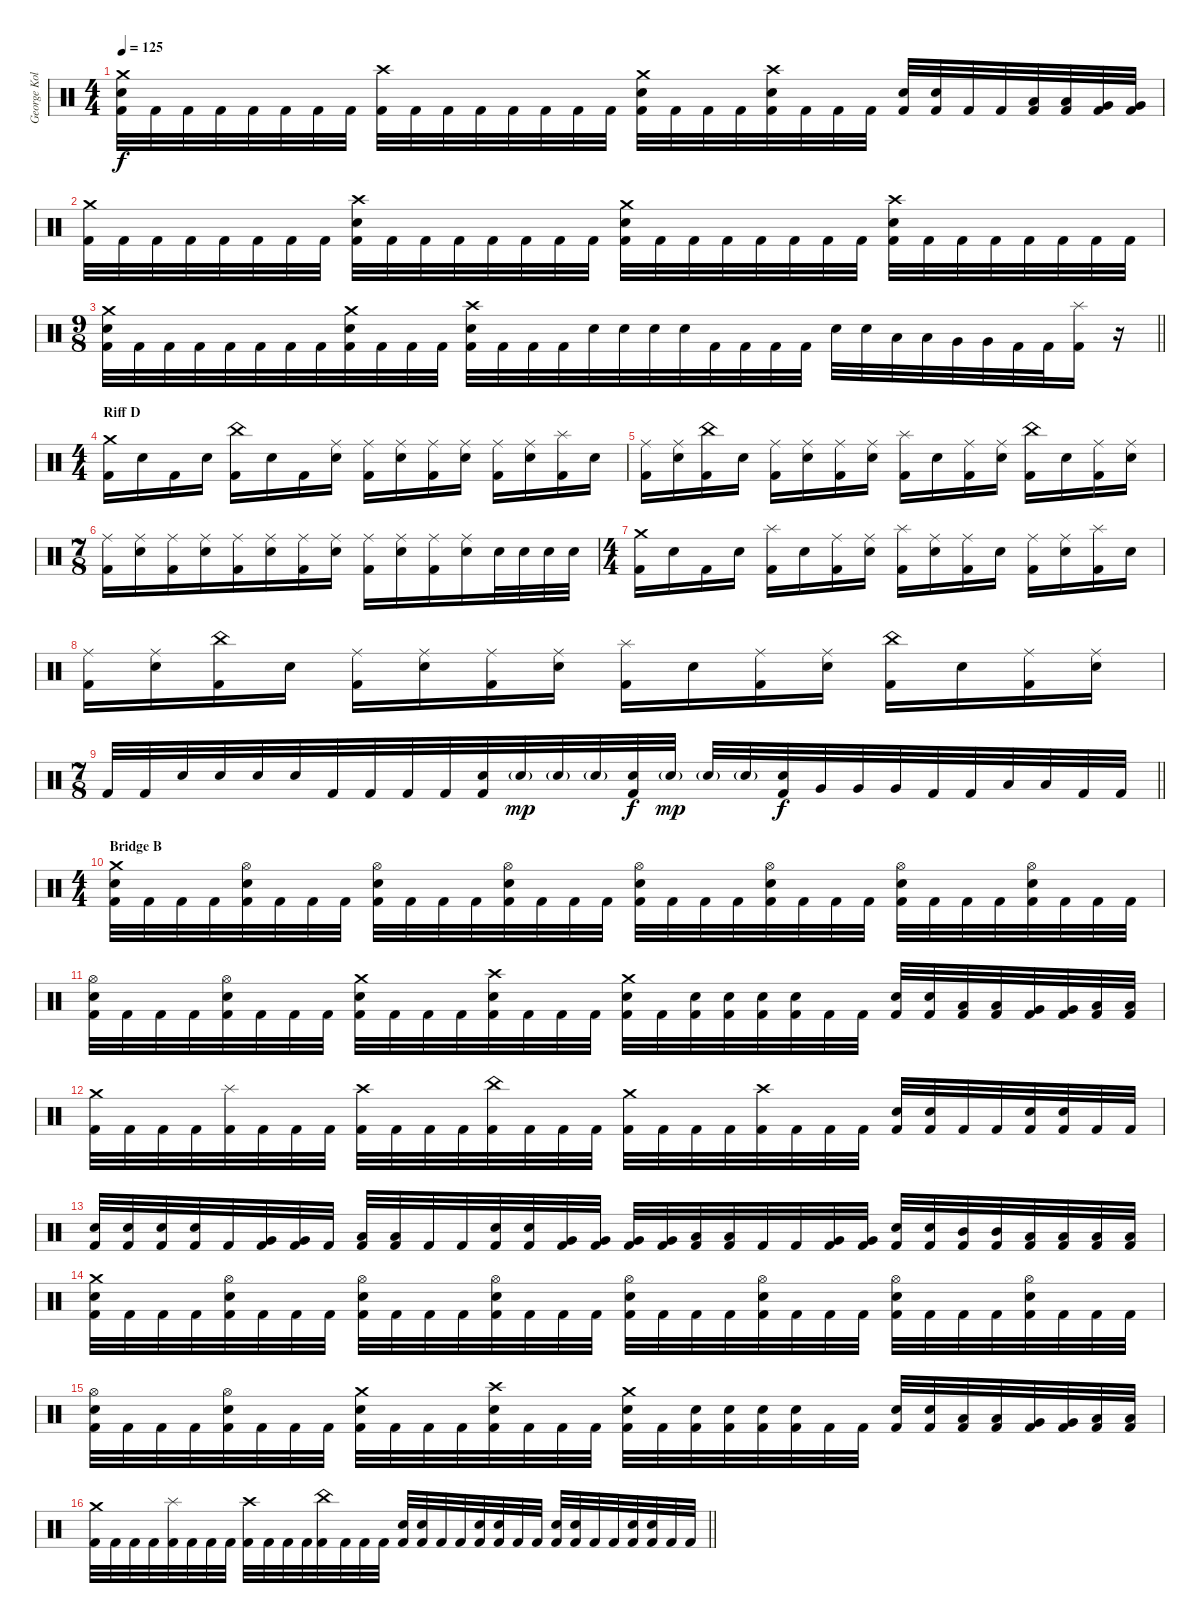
\track ("George Kollias" "George Kol") {instrument percussion}
\staff {score}
\articulation defaults
\ts (4 4)
\tempo 125
\clef neutral
\ks c
("Crash medium (hit)" "Electric Snare (hit)" "Kick (hit) 2").32{dy f} "Kick (hit) 2".32 "Kick (hit) 2".32 "Kick (hit) 2".32 "Kick (hit) 2".32 "Kick (hit) 2".32 "Kick (hit) 2".32 "Kick (hit) 2".32 ("Crash high (hit)" "Kick (hit) 2").32 "Kick (hit) 2".32 "Kick (hit) 2".32 "Kick (hit) 2".32 "Kick (hit) 2".32 "Kick (hit) 2".32 "Kick (hit) 2".32 "Kick (hit) 2".32 ("Crash medium (hit)" "Electric Snare (hit)" "Kick (hit) 2").32 "Kick (hit) 2".32 "Kick (hit) 2".32 "Kick (hit) 2".32 ("Crash high (hit)" "Electric Snare (hit)" "Kick (hit) 2").32 "Kick (hit) 2".32 "Kick (hit) 2".32 "Kick (hit) 2".32 ("Electric Snare (hit)" "Kick (hit) 2").32 ("Electric Snare (hit)" "Kick (hit) 2").32 "Kick (hit) 2".32 "Kick (hit) 2".32 ("Low Tom (hit)" "Kick (hit) 2").32 ("Low Tom (hit)" "Kick (hit) 2").32 ("Very Low Tom (hit)" "Kick (hit) 2").32 ("Very Low Tom (hit)" "Kick (hit) 2").32 |
("Crash medium (hit)" "Kick (hit) 2").32 "Kick (hit) 2".32 "Kick (hit) 2".32 "Kick (hit) 2".32 "Kick (hit) 2".32 "Kick (hit) 2".32 "Kick (hit) 2".32 "Kick (hit) 2".32 ("Crash high (hit)" "Electric Snare (hit)" "Kick (hit) 2").32 "Kick (hit) 2".32 "Kick (hit) 2".32 "Kick (hit) 2".32 "Kick (hit) 2".32 "Kick (hit) 2".32 "Kick (hit) 2".32 "Kick (hit) 2".32 ("Crash medium (hit)" "Electric Snare (hit)" "Kick (hit) 2").32 "Kick (hit) 2".32 "Kick (hit) 2".32 "Kick (hit) 2".32 "Kick (hit) 2".32 "Kick (hit) 2".32 "Kick (hit) 2".32 "Kick (hit) 2".32 ("Crash high (hit)" "Electric Snare (hit)" "Kick (hit) 2").32 "Kick (hit) 2".32 "Kick (hit) 2".32 "Kick (hit) 2".32 "Kick (hit) 2".32 "Kick (hit) 2".32 "Kick (hit) 2".32 "Kick (hit) 2".32 |
\ts (9 8)
\barLineRight lightlight
("Crash medium (hit)" "Electric Snare (hit)" "Kick (hit) 2").32 "Kick (hit) 2".32 "Kick (hit) 2".32 "Kick (hit) 2".32 "Kick (hit) 2".32 "Kick (hit) 2".32 "Kick (hit) 2".32 "Kick (hit) 2".32 ("Crash medium (hit)" "Electric Snare (hit)" "Kick (hit) 2").32 "Kick (hit) 2".32 "Kick (hit) 2".32 "Kick (hit) 2".32 ("Crash high (hit)" "Electric Snare (hit)" "Kick (hit) 2").32 "Kick (hit) 2".32 "Kick (hit) 2".32 "Kick (hit) 2".32 "Electric Snare (hit)".32 "Electric Snare (hit)".32 "Electric Snare (hit)".32 "Electric Snare (hit)".32 "Kick (hit) 2".32 "Kick (hit) 2".32 "Kick (hit) 2".32 "Kick (hit) 2".32 "Electric Snare (hit)".32 "Electric Snare (hit)".32 "Low Tom (hit)".32 "Low Tom (hit)".32 "Very Low Tom (hit)".32 "Very Low Tom (hit)".32 "Kick (hit) 2".32 "Kick (hit) 2".32 ("Splash (hit)" "Kick (hit) 2").16 r.16 |
\ts (4 4)
\section ("" "Riff D")
("Crash medium (hit)" "Kick (hit) 2").16 "Electric Snare (hit)".16 "Kick (hit) 2".16 "Electric Snare (hit)".16 ("China (hit)" "Kick (hit) 2").16 "Electric Snare (hit)".16 "Kick (hit) 2".16 ("Ride (middle)" "Electric Snare (hit)").16 ("Ride (middle)" "Kick (hit) 2").16 ("Ride (middle)" "Electric Snare (hit)").16 ("Ride (middle)" "Kick (hit) 2").16 ("Ride (middle)" "Electric Snare (hit)").16 ("Ride (middle)" "Kick (hit) 2").16 ("Ride (middle)" "Electric Snare (hit)").16 ("Splash (hit)" "Kick (hit) 2").16 "Electric Snare (hit)".16 |
("Ride (middle)" "Kick (hit) 2").16 ("Ride (middle)" "Electric Snare (hit)").16 ("China (hit)" "Kick (hit) 2").16 "Electric Snare (hit)".16 ("Ride (middle)" "Kick (hit) 2").16 ("Ride (middle)" "Electric Snare (hit)").16 ("Ride (middle)" "Kick (hit) 2").16 ("Ride (middle)" "Electric Snare (hit)").16 ("Splash (hit)" "Kick (hit) 2").16 "Electric Snare (hit)".16 ("Ride (middle)" "Kick (hit) 2").16 ("Ride (middle)" "Electric Snare (hit)").16 ("China (hit)" "Kick (hit) 2").16 "Electric Snare (hit)".16 ("Ride (middle)" "Kick (hit) 2").16 ("Ride (middle)" "Electric Snare (hit)").16 |
\ts (7 8)
("Ride (middle)" "Kick (hit) 2").16 ("Ride (middle)" "Electric Snare (hit)").16 ("Ride (middle)" "Kick (hit) 2").16 ("Ride (middle)" "Electric Snare (hit)").16 ("Ride (middle)" "Kick (hit) 2").16 ("Ride (middle)" "Electric Snare (hit)").16 ("Ride (middle)" "Kick (hit) 2").16 ("Ride (middle)" "Electric Snare (hit)").16 ("Ride (middle)" "Kick (hit) 2").16 ("Ride (middle)" "Electric Snare (hit)").16 ("Ride (middle)" "Kick (hit) 2").16 ("Ride (middle)" "Electric Snare (hit)").16 "Electric Snare (hit)".32 "Electric Snare (hit)".32 "Electric Snare (hit)".32 "Electric Snare (hit)".32 |
\ts (4 4)
("Crash medium (hit)" "Kick (hit) 2").16 "Electric Snare (hit)".16 "Kick (hit) 2".16 "Electric Snare (hit)".16 ("Splash (hit)" "Kick (hit) 2").16 "Electric Snare (hit)".16 ("Ride (middle)" "Kick (hit) 2").16 ("Ride (middle)" "Electric Snare (hit)").16 ("Splash (hit)" "Kick (hit) 2").16 ("Ride (middle)" "Electric Snare (hit)").16 ("Ride (middle)" "Kick (hit) 2").16 "Electric Snare (hit)".16 ("Ride (middle)" "Kick (hit) 2").16 ("Ride (middle)" "Electric Snare (hit)").16 ("Splash (hit)" "Kick (hit) 2").16 "Electric Snare (hit)".16 |
("Ride (middle)" "Kick (hit) 2").16 ("Ride (middle)" "Electric Snare (hit)").16 ("China (hit)" "Kick (hit) 2").16 "Electric Snare (hit)".16 ("Ride (middle)" "Kick (hit) 2").16 ("Ride (middle)" "Electric Snare (hit)").16 ("Ride (middle)" "Kick (hit) 2").16 ("Ride (middle)" "Electric Snare (hit)").16 ("Splash (hit)" "Kick (hit) 2").16 "Electric Snare (hit)".16 ("Ride (middle)" "Kick (hit) 2").16 ("Ride (middle)" "Electric Snare (hit)").16 ("China (hit)" "Kick (hit) 2").16 "Electric Snare (hit)".16 ("Ride (middle)" "Kick (hit) 2").16 ("Ride (middle)" "Electric Snare (hit)").16 |
\ts (7 8)
\barLineRight lightlight "Kick (hit) 2".32 "Kick (hit) 2".32 "Electric Snare (hit)".32 "Electric Snare (hit)".32 "Electric Snare (hit)".32 "Electric Snare (hit)".32 "Kick (hit) 2".32 "Kick (hit) 2".32 "Kick (hit) 2".32 "Kick (hit) 2".32
("Electric Snare (hit)" "Kick (hit) 2").32 "Electric Snare (hit)"{g}.32{dy mp} "Electric Snare (hit)"{g}.32 "Electric Snare (hit)"{g}.32 ("Electric Snare (hit)" "Kick (hit) 2").32{dy f} "Electric Snare (hit)"{g}.32{dy mp} "Electric Snare (hit)"{g}.32 "Electric Snare (hit)"{g}.32 ("Electric Snare (hit)" "Kick (hit) 2").32{dy f} "Very Low Tom (hit)".32 "Very Low Tom (hit)".32 "Very Low Tom (hit)".32 "Kick (hit) 2".32 "Kick (hit) 2".32 "Low Floor Tom (hit)".32 "Low Floor Tom (hit)".32 "Kick (hit) 2".32 "Kick (hit) 2".32 |
\ts (4 4)
\section ("" "Bridge B")
("Crash medium (hit)" "Electric Snare (hit)" "Kick (hit) 2").32 "Kick (hit) 2".32 "Kick (hit) 2".32 "Kick (hit) 2".32 ("Hi-Hat (open)" "Electric Snare (hit)" "Kick (hit) 2").32 "Kick (hit) 2".32 "Kick (hit) 2".32 "Kick (hit) 2".32 ("Hi-Hat (open)" "Electric Snare (hit)" "Kick (hit) 2").32 "Kick (hit) 2".32 "Kick (hit) 2".32 "Kick (hit) 2".32 ("Hi-Hat (open)" "Electric Snare (hit)" "Kick (hit) 2").32 "Kick (hit) 2".32 "Kick (hit) 2".32 "Kick (hit) 2".32 ("Hi-Hat (open)" "Electric Snare (hit)" "Kick (hit) 2").32 "Kick (hit) 2".32 "Kick (hit) 2".32 "Kick (hit) 2".32 ("Hi-Hat (open)" "Electric Snare (hit)" "Kick (hit) 2").32 "Kick (hit) 2".32 "Kick (hit) 2".32 "Kick (hit) 2".32 ("Hi-Hat (open)" "Electric Snare (hit)" "Kick (hit) 2").32 "Kick (hit) 2".32 "Kick (hit) 2".32 "Kick (hit) 2".32 ("Hi-Hat (open)" "Electric Snare (hit)" "Kick (hit) 2").32 "Kick (hit) 2".32 "Kick (hit) 2".32 "Kick (hit) 2".32 |
("Hi-Hat (open)" "Electric Snare (hit)" "Kick (hit) 2").32 "Kick (hit) 2".32 "Kick (hit) 2".32 "Kick (hit) 2".32 ("Hi-Hat (open)" "Electric Snare (hit)" "Kick (hit) 2").32 "Kick (hit) 2".32 "Kick (hit) 2".32 "Kick (hit) 2".32 ("Crash medium (hit)" "Electric Snare (hit)" "Kick (hit) 2").32 "Kick (hit) 2".32 "Kick (hit) 2".32 "Kick (hit) 2".32 ("Crash high (hit)" "Electric Snare (hit)" "Kick (hit) 2").32 "Kick (hit) 2".32 "Kick (hit) 2".32 "Kick (hit) 2".32 ("Crash medium (hit)" "Electric Snare (hit)" "Kick (hit) 2").32 "Kick (hit) 2".32 ("Electric Snare (hit)" "Kick (hit) 2").32 ("Electric Snare (hit)" "Kick (hit) 2").32 ("Electric Snare (hit)" "Kick (hit) 2").32 ("Electric Snare (hit)" "Kick (hit) 2").32 "Kick (hit) 2".32 "Kick (hit) 2".32 ("Electric Snare (hit)" "Kick (hit) 2").32 ("Electric Snare (hit)" "Kick (hit) 2").32 ("Low Tom (hit)" "Kick (hit) 2").32 ("Low Tom (hit)" "Kick (hit) 2").32 ("Very Low Tom (hit)" "Kick (hit) 2").32 ("Very Low Tom (hit)" "Kick (hit) 2").32 ("Low Floor Tom (hit)" "Kick (hit) 2").32 ("Low Floor Tom (hit)" "Kick (hit) 2").32 |
("Crash medium (hit)" "Kick (hit) 2").32 "Kick (hit) 2".32 "Kick (hit) 2".32 "Kick (hit) 2".32 ("Splash (hit)" "Kick (hit) 2").32 "Kick (hit) 2".32 "Kick (hit) 2".32 "Kick (hit) 2".32 ("Crash high (hit)" "Kick (hit) 2").32 "Kick (hit) 2".32 "Kick (hit) 2".32 "Kick (hit) 2".32 ("China (hit)" "Kick (hit) 2").32 "Kick (hit) 2".32 "Kick (hit) 2".32 "Kick (hit) 2".32 ("Crash medium (hit)" "Kick (hit) 2").32 "Kick (hit) 2".32 "Kick (hit) 2".32 "Kick (hit) 2".32 ("Crash high (hit)" "Kick (hit) 2").32 "Kick (hit) 2".32 "Kick (hit) 2".32 "Kick (hit) 2".32 ("Electric Snare (hit)" "Kick (hit) 2").32 ("Electric Snare (hit)" "Kick (hit) 2").32 "Kick (hit) 2".32 "Kick (hit) 2".32 ("Electric Snare (hit)" "Kick (hit) 2").32 ("Electric Snare (hit)" "Kick (hit) 2").32 "Kick (hit) 2".32 "Kick (hit) 2".32 |
("Electric Snare (hit)" "Kick (hit) 2").32 ("Electric Snare (hit)" "Kick (hit) 2").32 ("Electric Snare (hit)" "Kick (hit) 2").32 ("Electric Snare (hit)" "Kick (hit) 2").32 "Kick (hit) 2".32 ("Very Low Tom (hit)" "Kick (hit) 2").32 ("Very Low Tom (hit)" "Kick (hit) 2").32 "Kick (hit) 2".32 ("Low Floor Tom (hit)" "Kick (hit) 2").32 ("Low Floor Tom (hit)" "Kick (hit) 2").32 "Kick (hit) 2".32 "Kick (hit) 2".32 ("Electric Snare (hit)" "Kick (hit) 2").32 ("Electric Snare (hit)" "Kick (hit) 2").32 ("Very Low Tom (hit)" "Kick (hit) 2").32 ("Very Low Tom (hit)" "Kick (hit) 2").32 ("Very Low Tom (hit)" "Kick (hit) 2").32 ("Very Low Tom (hit)" "Kick (hit) 2").32 ("Low Floor Tom (hit)" "Kick (hit) 2").32 ("Low Floor Tom (hit)" "Kick (hit) 2").32 "Kick (hit) 2".32 "Kick (hit) 2".32 ("Very Low Tom (hit)" "Kick (hit) 2").32 ("Very Low Tom (hit)" "Kick (hit) 2").32 ("Electric Snare (hit)" "Kick (hit) 2").32 ("Electric Snare (hit)" "Kick (hit) 2").32 ("Mid Tom (hit)" "Kick (hit) 2").32 ("Mid Tom (hit)" "Kick (hit) 2").32 ("Low Tom (hit)" "Kick (hit) 2").32 ("Low Tom (hit)" "Kick (hit) 2").32 ("Low Tom (hit)" "Kick (hit) 2").32 ("Low Tom (hit)" "Kick (hit) 2").32 |
("Crash medium (hit)" "Electric Snare (hit)" "Kick (hit) 2").32 "Kick (hit) 2".32 "Kick (hit) 2".32 "Kick (hit) 2".32 ("Hi-Hat (open)" "Electric Snare (hit)" "Kick (hit) 2").32 "Kick (hit) 2".32 "Kick (hit) 2".32 "Kick (hit) 2".32 ("Hi-Hat (open)" "Electric Snare (hit)" "Kick (hit) 2").32 "Kick (hit) 2".32 "Kick (hit) 2".32 "Kick (hit) 2".32 ("Hi-Hat (open)" "Electric Snare (hit)" "Kick (hit) 2").32 "Kick (hit) 2".32 "Kick (hit) 2".32 "Kick (hit) 2".32 ("Hi-Hat (open)" "Electric Snare (hit)" "Kick (hit) 2").32 "Kick (hit) 2".32 "Kick (hit) 2".32 "Kick (hit) 2".32 ("Hi-Hat (open)" "Electric Snare (hit)" "Kick (hit) 2").32 "Kick (hit) 2".32 "Kick (hit) 2".32 "Kick (hit) 2".32 ("Hi-Hat (open)" "Electric Snare (hit)" "Kick (hit) 2").32 "Kick (hit) 2".32 "Kick (hit) 2".32 "Kick (hit) 2".32 ("Hi-Hat (open)" "Electric Snare (hit)" "Kick (hit) 2").32 "Kick (hit) 2".32 "Kick (hit) 2".32 "Kick (hit) 2".32 |
("Hi-Hat (open)" "Electric Snare (hit)" "Kick (hit) 2").32 "Kick (hit) 2".32 "Kick (hit) 2".32 "Kick (hit) 2".32 ("Hi-Hat (open)" "Electric Snare (hit)" "Kick (hit) 2").32 "Kick (hit) 2".32 "Kick (hit) 2".32 "Kick (hit) 2".32 ("Crash medium (hit)" "Electric Snare (hit)" "Kick (hit) 2").32 "Kick (hit) 2".32 "Kick (hit) 2".32 "Kick (hit) 2".32 ("Crash high (hit)" "Electric Snare (hit)" "Kick (hit) 2").32 "Kick (hit) 2".32 "Kick (hit) 2".32 "Kick (hit) 2".32 ("Crash medium (hit)" "Electric Snare (hit)" "Kick (hit) 2").32 "Kick (hit) 2".32 ("Electric Snare (hit)" "Kick (hit) 2").32 ("Electric Snare (hit)" "Kick (hit) 2").32 ("Electric Snare (hit)" "Kick (hit) 2").32 ("Electric Snare (hit)" "Kick (hit) 2").32 "Kick (hit) 2".32 "Kick (hit) 2".32 ("Electric Snare (hit)" "Kick (hit) 2").32 ("Electric Snare (hit)" "Kick (hit) 2").32 ("Low Tom (hit)" "Kick (hit) 2").32 ("Low Tom (hit)" "Kick (hit) 2").32 ("Very Low Tom (hit)" "Kick (hit) 2").32 ("Very Low Tom (hit)" "Kick (hit) 2").32 ("Low Floor Tom (hit)" "Kick (hit) 2").32 ("Low Floor Tom (hit)" "Kick (hit) 2").32 |
\barLineRight lightlight
("Crash medium (hit)" "Kick (hit) 2").32 "Kick (hit) 2".32 "Kick (hit) 2".32 "Kick (hit) 2".32 ("Splash (hit)" "Kick (hit) 2").32 "Kick (hit) 2".32 "Kick (hit) 2".32 "Kick (hit) 2".32 ("Crash high (hit)" "Kick (hit) 2").32 "Kick (hit) 2".32 "Kick (hit) 2".32 "Kick (hit) 2".32 ("China (hit)" "Kick (hit) 2").32 "Kick (hit) 2".32 "Kick (hit) 2".32 "Kick (hit) 2".32 ("Electric Snare (hit)" "Kick (hit) 2").32 ("Electric Snare (hit)" "Kick (hit) 2").32 "Kick (hit) 2".32 "Kick (hit) 2".32 ("Electric Snare (hit)" "Kick (hit) 2").32 ("Electric Snare (hit)" "Kick (hit) 2").32 "Kick (hit) 2".32 "Kick (hit) 2".32 ("Electric Snare (hit)" "Kick (hit) 2").32 ("Electric Snare (hit)" "Kick (hit) 2").32 "Kick (hit) 2".32 "Kick (hit) 2".32 ("Electric Snare (hit)" "Kick (hit) 2").32 ("Electric Snare (hit)" "Kick (hit) 2").32 "Kick (hit) 2".32 "Kick (hit) 2".32
